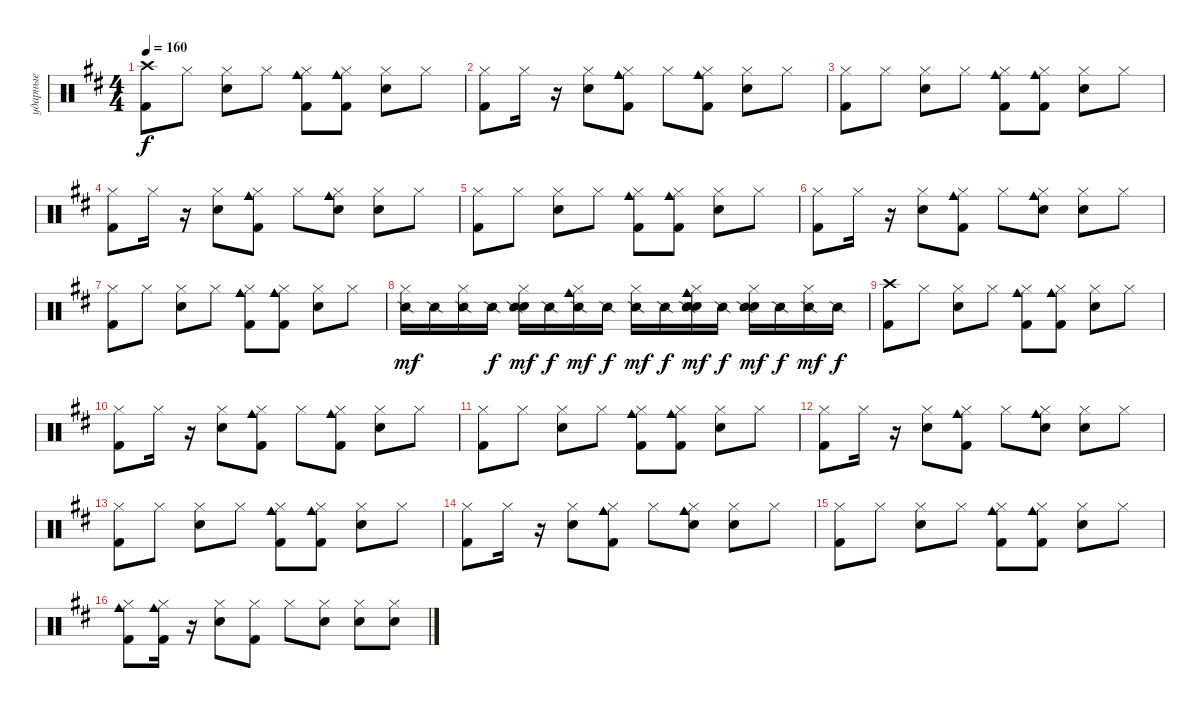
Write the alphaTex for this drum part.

\track ("ударные" "ударные") {instrument percussion}
\staff {score}
\articulation defaults
\ts (4 4)
\tempo 160
\clef neutral
\ks bminor
("Crash high (hit)" "Kick (hit) 2").8{dy f} "Hi-Hat (closed)".8 ("Hi-Hat (closed)" "Snare (hit) 2").8 "Hi-Hat (closed)".8 ("Hi-Hat (closed)" "Cowbell medium (hit)" "Kick (hit) 2").8 ("Hi-Hat (closed)" "Cowbell medium (hit)" "Kick (hit) 2").8 ("Hi-Hat (closed)" "Snare (hit) 2").8 "Hi-Hat (closed)".8 |
("Hi-Hat (closed)" "Kick (hit) 2").8 "Hi-Hat (closed)".16 r.16 ("Hi-Hat (closed)" "Snare (hit) 2").8 ("Hi-Hat (closed)" "Kick (hit) 2" "Cowbell medium (hit)").8 "Hi-Hat (closed)".8 ("Hi-Hat (closed)" "Kick (hit) 2" "Cowbell medium (hit)").8 ("Hi-Hat (closed)" "Snare (hit) 2").8 "Hi-Hat (closed)".8 |
("Hi-Hat (closed)" "Kick (hit) 2").8 "Hi-Hat (closed)".8 ("Hi-Hat (closed)" "Snare (hit) 2").8 "Hi-Hat (closed)".8 ("Hi-Hat (closed)" "Cowbell medium (hit)" "Kick (hit) 2").8 ("Hi-Hat (closed)" "Cowbell medium (hit)" "Kick (hit) 2").8 ("Hi-Hat (closed)" "Snare (hit) 2").8 "Hi-Hat (closed)".8 |
("Hi-Hat (closed)" "Kick (hit) 2").8 "Hi-Hat (closed)".16 r.16 ("Hi-Hat (closed)" "Snare (hit) 2").8 ("Hi-Hat (closed)" "Kick (hit) 2" "Cowbell medium (hit)").8 "Hi-Hat (closed)".8 ("Hi-Hat (closed)" "Hand Clap (hit)" "Cowbell medium (hit)").8 ("Hi-Hat (closed)" "Snare (hit) 2").8 "Hi-Hat (closed)".8 |
("Hi-Hat (closed)" "Kick (hit) 2").8 "Hi-Hat (closed)".8 ("Hi-Hat (closed)" "Snare (hit) 2").8 "Hi-Hat (closed)".8 ("Hi-Hat (closed)" "Cowbell medium (hit)" "Kick (hit) 2").8 ("Hi-Hat (closed)" "Cowbell medium (hit)" "Kick (hit) 2").8 ("Hi-Hat (closed)" "Snare (hit) 2").8 "Hi-Hat (closed)".8 |
("Hi-Hat (closed)" "Kick (hit) 2").8 "Hi-Hat (closed)".16 r.16 ("Hi-Hat (closed)" "Snare (hit) 2").8 ("Hi-Hat (closed)" "Kick (hit) 2" "Cowbell medium (hit)").8 "Hi-Hat (closed)".8 ("Hi-Hat (closed)" "Hand Clap (hit)" "Cowbell medium (hit)").8 ("Hi-Hat (closed)" "Snare (hit) 2").8 "Hi-Hat (closed)".8 |
("Hi-Hat (closed)" "Kick (hit) 2").8 "Hi-Hat (closed)".8 ("Hi-Hat (closed)" "Snare (hit) 2").8 "Hi-Hat (closed)".8 ("Hi-Hat (closed)" "Cowbell medium (hit)" "Kick (hit) 2").8 ("Hi-Hat (closed)" "Cowbell medium (hit)" "Kick (hit) 2").8 ("Hi-Hat (closed)" "Snare (hit) 2").8 "Hi-Hat (closed)".8 |
("Hi-Hat (closed)" "Snare (side stick) 2").16{dy mf} "Snare (side stick) 2".16 ("Hi-Hat (closed)" "Snare (side stick) 2").16 "Snare (side stick) 2".16{dy f} ("Snare (hit) 2" "Hi-Hat (closed)" "Snare (side stick) 2").16{dy mf} "Snare (side stick) 2".16{dy f} ("Cowbell medium (hit)" "Hi-Hat (closed)" "Snare (side stick) 2").16{dy mf} "Snare (side stick) 2".16{dy f} ("Hi-Hat (closed)" "Snare (side stick) 2").16{dy mf} "Snare (side stick) 2".16{dy f} ("Cowbell medium (hit)" "Hi-Hat (closed)" "Hand Clap (hit)" "Snare (side stick) 2" "Hand Clap (hit)").16{dy mf} "Snare (side stick) 2".16{dy f} ("Hi-Hat (closed)" "Snare (hit) 2" "Snare (side stick) 2").16{dy mf} "Snare (side stick) 2".16{dy f} ("Hi-Hat (closed)" "Snare (side stick) 2").16{dy mf} "Snare (side stick) 2".16{dy f} |
("Crash high (hit)" "Kick (hit) 2").8 "Hi-Hat (closed)".8 ("Hi-Hat (closed)" "Snare (hit) 2").8 "Hi-Hat (closed)".8 ("Hi-Hat (closed)" "Cowbell medium (hit)" "Kick (hit) 2").8 ("Hi-Hat (closed)" "Cowbell medium (hit)" "Kick (hit) 2").8 ("Hi-Hat (closed)" "Snare (hit) 2").8 "Hi-Hat (closed)".8 |
("Hi-Hat (closed)" "Kick (hit) 2").8 "Hi-Hat (closed)".16 r.16 ("Hi-Hat (closed)" "Snare (hit) 2").8 ("Hi-Hat (closed)" "Kick (hit) 2" "Cowbell medium (hit)").8 "Hi-Hat (closed)".8 ("Hi-Hat (closed)" "Kick (hit) 2" "Cowbell medium (hit)").8 ("Hi-Hat (closed)" "Snare (hit) 2").8 "Hi-Hat (closed)".8 |
("Hi-Hat (closed)" "Kick (hit) 2").8 "Hi-Hat (closed)".8 ("Hi-Hat (closed)" "Snare (hit) 2").8 "Hi-Hat (closed)".8 ("Hi-Hat (closed)" "Cowbell medium (hit)" "Kick (hit) 2").8 ("Hi-Hat (closed)" "Cowbell medium (hit)" "Kick (hit) 2").8 ("Hi-Hat (closed)" "Snare (hit) 2").8 "Hi-Hat (closed)".8 |
("Hi-Hat (closed)" "Kick (hit) 2").8 "Hi-Hat (closed)".16 r.16 ("Hi-Hat (closed)" "Snare (hit) 2").8 ("Hi-Hat (closed)" "Kick (hit) 2" "Cowbell medium (hit)").8 "Hi-Hat (closed)".8 ("Hi-Hat (closed)" "Hand Clap (hit)" "Cowbell medium (hit)").8 ("Hi-Hat (closed)" "Snare (hit) 2").8 "Hi-Hat (closed)".8 |
("Hi-Hat (closed)" "Kick (hit) 2").8 "Hi-Hat (closed)".8 ("Hi-Hat (closed)" "Snare (hit) 2").8 "Hi-Hat (closed)".8 ("Hi-Hat (closed)" "Cowbell medium (hit)" "Kick (hit) 2").8 ("Hi-Hat (closed)" "Cowbell medium (hit)" "Kick (hit) 2").8 ("Hi-Hat (closed)" "Snare (hit) 2").8 "Hi-Hat (closed)".8 |
("Hi-Hat (closed)" "Kick (hit) 2").8 "Hi-Hat (closed)".16 r.16 ("Hi-Hat (closed)" "Snare (hit) 2").8 ("Hi-Hat (closed)" "Kick (hit) 2" "Cowbell medium (hit)").8 "Hi-Hat (closed)".8 ("Hi-Hat (closed)" "Hand Clap (hit)" "Cowbell medium (hit)").8 ("Hi-Hat (closed)" "Snare (hit) 2").8 "Hi-Hat (closed)".8 |
("Hi-Hat (closed)" "Kick (hit) 2").8 "Hi-Hat (closed)".8 ("Hi-Hat (closed)" "Snare (hit) 2").8 "Hi-Hat (closed)".8 ("Hi-Hat (closed)" "Cowbell medium (hit)" "Kick (hit) 2").8 ("Hi-Hat (closed)" "Cowbell medium (hit)" "Kick (hit) 2").8 ("Hi-Hat (closed)" "Snare (hit) 2").8 "Hi-Hat (closed)".8 |
("Cowbell medium (hit)" "Hi-Hat (closed)" "Kick (hit) 2").8 ("Cowbell medium (hit)" "Kick (hit) 2" "Hi-Hat (closed)").16 r.16 ("Hi-Hat (closed)" "Snare (hit) 2").8 ("Hi-Hat (closed)" "Kick (hit) 2").8 "Hi-Hat (closed)".8 ("Hi-Hat (closed)" "Snare (hit) 2").8 ("Hi-Hat (closed)" "Snare (hit) 2").8 ("Snare (hit) 2" "Hi-Hat (closed)").8
